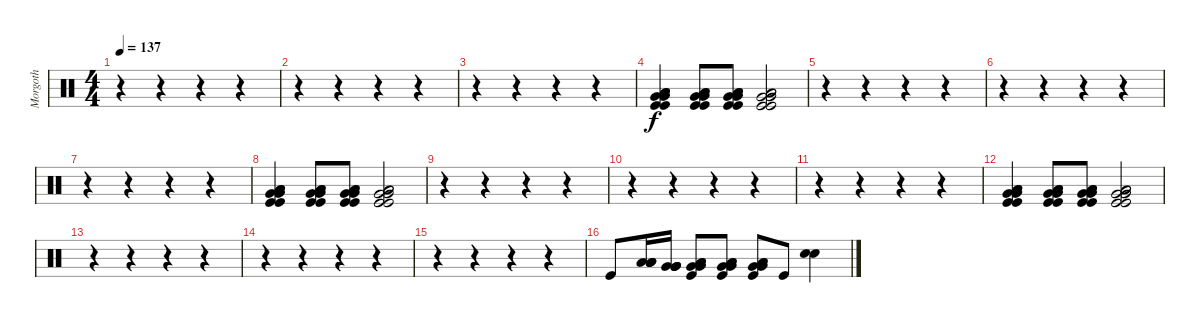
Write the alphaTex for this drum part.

\track ("Morgoth" "Morgoth") {instrument percussion}
\staff {score}
\articulation defaults
\ts (4 4)
\tempo 137
\clef neutral
\ks c
r.4{dy f} r.4 r.4 r.4 |
r.4 r.4 r.4 r.4 |
r.4 r.4 r.4 r.4 |
("Low Tom (hit)" "Very Low Tom (hit)" "Kick (hit)" "Low Tom (hit)" "Very Low Tom (hit)" "Kick (hit)").4 ("Low Tom (hit)" "Very Low Tom (hit)" "Kick (hit)" "Low Tom (hit)" "Very Low Tom (hit)" "Kick (hit)").8 ("Low Tom (hit)" "Very Low Tom (hit)" "Kick (hit)" "Low Tom (hit)" "Very Low Tom (hit)" "Kick (hit)").8 ("Low Tom (hit)" "Very Low Tom (hit)" "Kick (hit)" "Low Tom (hit)" "Very Low Tom (hit)" "Kick (hit)").2 |
r.4 r.4 r.4 r.4 |
r.4 r.4 r.4 r.4 |
r.4 r.4 r.4 r.4 |
("Low Tom (hit)" "Very Low Tom (hit)" "Kick (hit)" "Low Tom (hit)" "Very Low Tom (hit)" "Kick (hit)").4 ("Low Tom (hit)" "Very Low Tom (hit)" "Kick (hit)" "Low Tom (hit)" "Very Low Tom (hit)" "Kick (hit)").8 ("Low Tom (hit)" "Very Low Tom (hit)" "Kick (hit)" "Low Tom (hit)" "Very Low Tom (hit)" "Kick (hit)").8 ("Low Tom (hit)" "Very Low Tom (hit)" "Kick (hit)" "Low Tom (hit)" "Very Low Tom (hit)" "Kick (hit)").2 |
r.4 r.4 r.4 r.4 |
r.4 r.4 r.4 r.4 |
r.4 r.4 r.4 r.4 |
("Low Tom (hit)" "Very Low Tom (hit)" "Kick (hit)" "Low Tom (hit)" "Very Low Tom (hit)" "Kick (hit)").4 ("Low Tom (hit)" "Very Low Tom (hit)" "Kick (hit)" "Low Tom (hit)" "Very Low Tom (hit)" "Kick (hit)").8 ("Low Tom (hit)" "Very Low Tom (hit)" "Kick (hit)" "Low Tom (hit)" "Very Low Tom (hit)" "Kick (hit)").8 ("Low Tom (hit)" "Very Low Tom (hit)" "Kick (hit)" "Low Tom (hit)" "Very Low Tom (hit)" "Kick (hit)").2 |
r.4 r.4 r.4 r.4 |
r.4 r.4 r.4 r.4 |
r.4 r.4 r.4 r.4 |
"Kick (hit)".8 ("Low Tom (hit)" "Low Tom (hit)" "Low Tom (hit)" "Low Tom (hit)").16 ("Very Low Tom (hit)" "Very Low Tom (hit)" "Very Low Tom (hit)" "Very Low Tom (hit)").16 ("Low Tom (hit)" "Very Low Tom (hit)" "Low Tom (hit)" "Very Low Tom (hit)" "Kick (hit)").8 ("Very Low Tom (hit)" "Low Tom (hit)" "Low Tom (hit)" "Very Low Tom (hit)" "Kick (hit)").8 ("Very Low Tom (hit)" "Low Tom (hit)" "Low Tom (hit)" "Very Low Tom (hit)" "Kick (hit)").8 "Kick (hit)".8 ("Electric Snare (hit)" "Electric Snare (hit)").4
